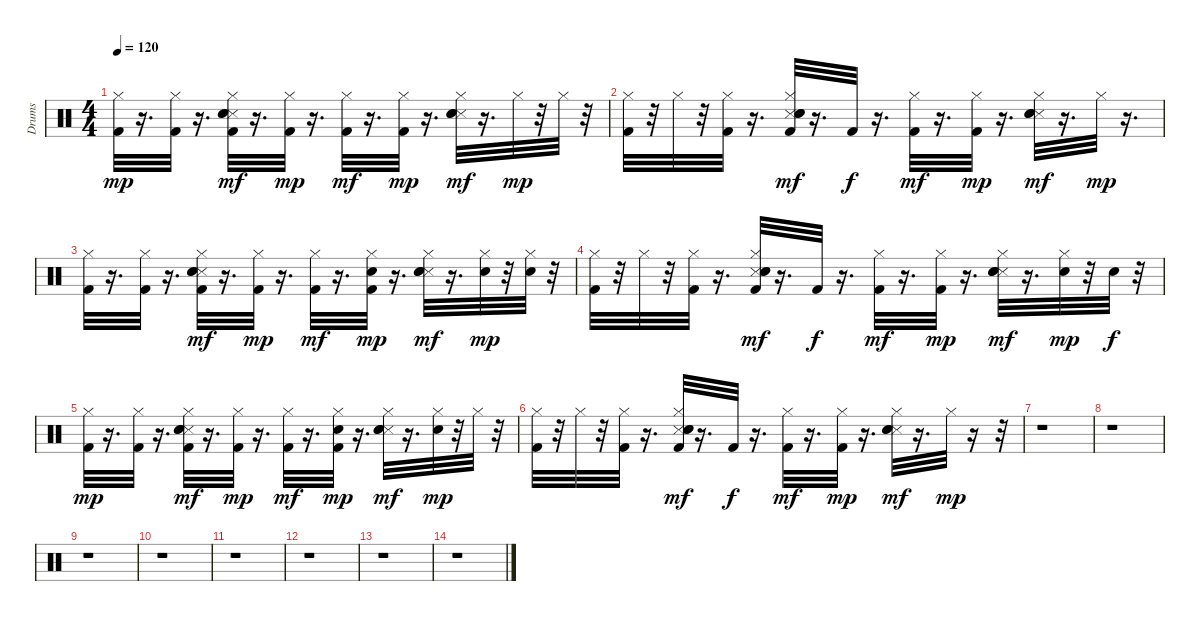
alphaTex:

\track ("Drums" "Drums") {instrument percussion}
\staff {score}
\articulation defaults
\ts (4 4)
\tempo 120
\clef neutral
\ks c
("Kick (hit) 2" "Hi-Hat (closed)").32{dy mp} r.16{d} ("Kick (hit) 2" "Hi-Hat (closed)").32 r.16{d} ("Metronome (hit)" "Kick (hit) 2" "Snare (hit) 2" "Hand Clap (hit)" "Hi-Hat (closed)").32{dy mf} r.16{d} ("Kick (hit) 2" "Hi-Hat (closed)").32{dy mp} r.16{d} ("Kick (hit) 2" "Hi-Hat (closed)").32{dy mf} r.16{d} ("Kick (hit) 2" "Hi-Hat (closed)").32{dy mp} r.16{d} ("Metronome (hit)" "Snare (hit) 2" "Hand Clap (hit)" "Hi-Hat (closed)").32{dy mf} r.16{d} "Hi-Hat (closed)".32{dy mp} r.32 "Hi-Hat (closed)".32 r.32 |
("Kick (hit) 2" "Hi-Hat (closed)").32 r.32 "Hi-Hat (closed)".32 r.32 ("Kick (hit) 2" "Hi-Hat (closed)").32 r.16{d} ("Metronome (hit)" "Kick (hit) 2" "Snare (hit) 2" "Hand Clap (hit)" "Hi-Hat (closed)").32{dy mf} r.16{d} "Kick (hit) 2".32{dy f} r.16{d} ("Kick (hit) 2" "Hi-Hat (closed)").32{dy mf} r.16{d} ("Kick (hit) 2" "Hi-Hat (closed)").32{dy mp} r.16{d} ("Metronome (hit)" "Snare (hit) 2" "Hand Clap (hit)" "Hi-Hat (closed)").32{dy mf} r.16{d} "Hi-Hat (closed)".32{dy mp} r.16{d} |
("Kick (hit) 2" "Hi-Hat (closed)").32 r.16{d} ("Kick (hit) 2" "Hi-Hat (closed)").32 r.16{d} ("Metronome (hit)" "Kick (hit) 2" "Snare (hit) 2" "Hand Clap (hit)" "Hi-Hat (closed)").32{dy mf} r.16{d} ("Kick (hit) 2" "Hi-Hat (closed)").32{dy mp} r.16{d} ("Kick (hit) 2" "Hi-Hat (closed)").32{dy mf} r.16{d} ("Kick (hit) 2" "Hand Clap (hit)" "Hi-Hat (closed)").32{dy mp} r.16{d} ("Metronome (hit)" "Snare (hit) 2" "Hand Clap (hit)" "Hi-Hat (closed)").32{dy mf} r.16{d} ("Hand Clap (hit)" "Hi-Hat (closed)").32{dy mp} r.32 ("Hand Clap (hit)" "Hi-Hat (closed)").32 r.32 |
("Kick (hit) 2" "Hi-Hat (closed)").32 r.32 "Hi-Hat (closed)".32 r.32 ("Kick (hit) 2" "Hi-Hat (closed)").32 r.16{d} ("Metronome (hit)" "Kick (hit) 2" "Snare (hit) 2" "Hand Clap (hit)" "Hi-Hat (closed)").32{dy mf} r.16{d} "Kick (hit) 2".32{dy f} r.16{d} ("Kick (hit) 2" "Hi-Hat (closed)").32{dy mf} r.16{d} ("Kick (hit) 2" "Hi-Hat (closed)").32{dy mp} r.16{d} ("Metronome (hit)" "Snare (hit) 2" "Hand Clap (hit)" "Hi-Hat (closed)").32{dy mf} r.16{d} ("Hand Clap (hit)" "Hi-Hat (closed)").32{dy mp} r.32 "Hand Clap (hit)".32{dy f} r.32 |
("Kick (hit) 2" "Hi-Hat (closed)").32{dy mp} r.16{d} ("Kick (hit) 2" "Hi-Hat (closed)").32 r.16{d} ("Metronome (hit)" "Kick (hit) 2" "Snare (hit) 2" "Hand Clap (hit)" "Hi-Hat (closed)").32{dy mf} r.16{d} ("Kick (hit) 2" "Hi-Hat (closed)").32{dy mp} r.16{d} ("Kick (hit) 2" "Hi-Hat (closed)").32{dy mf} r.16{d} ("Kick (hit) 2" "Hand Clap (hit)" "Hi-Hat (closed)").32{dy mp} r.16{d} ("Metronome (hit)" "Snare (hit) 2" "Hand Clap (hit)" "Hi-Hat (closed)").32{dy mf} r.16{d} ("Hand Clap (hit)" "Hi-Hat (closed)").32{dy mp} r.32 "Hi-Hat (closed)".32 r.32 |
("Kick (hit) 2" "Hi-Hat (closed)").32 r.32 "Hi-Hat (closed)".32 r.32 ("Kick (hit) 2" "Hi-Hat (closed)").32 r.16{d} ("Metronome (hit)" "Kick (hit) 2" "Snare (hit) 2" "Hand Clap (hit)" "Hi-Hat (closed)").32{dy mf} r.16{d} "Kick (hit) 2".32{dy f} r.16{d} ("Kick (hit) 2" "Hi-Hat (closed)").32{dy mf} r.16{d} ("Kick (hit) 2" "Hi-Hat (closed)").32{dy mp} r.16{d} ("Metronome (hit)" "Snare (hit) 2" "Hand Clap (hit)" "Hi-Hat (closed)").32{dy mf} r.16{d} "Hi-Hat (closed)".32{dy mp} r.16 r.32 |
r.1 |
r.1 |
r.1 |
r.1 |
r.1 |
r.1 |
r.1 |
r.1
